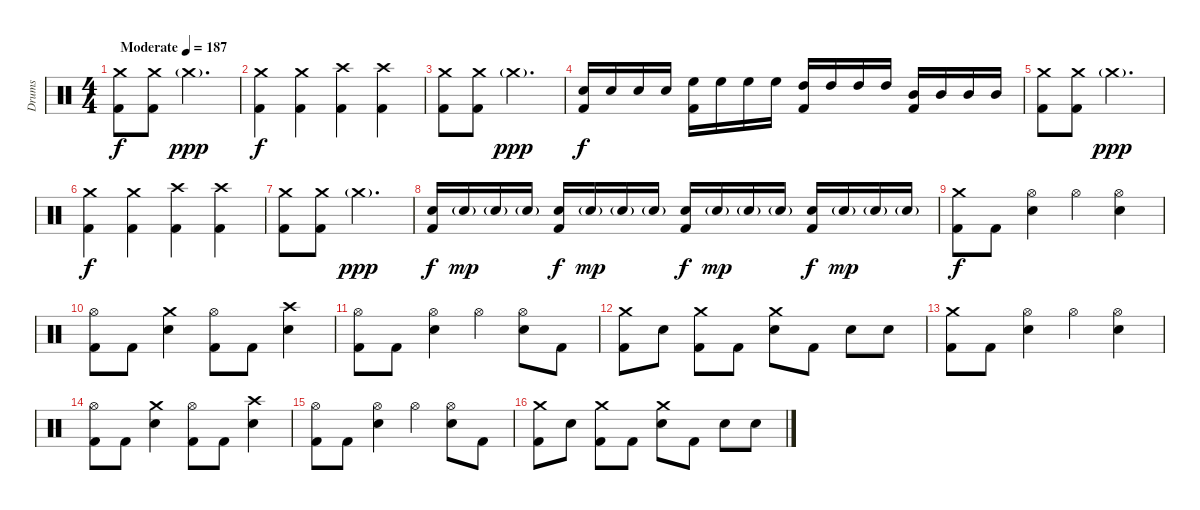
\track ("Drums" "Drums") {instrument percussion}
\staff
\articulation defaults
\ts (4 4)
\tempo (187 "Moderate")
\clef neutral
\ks c
("Crash medium (hit)" "Kick (hit) 2").8{dy f} ("Crash medium (hit)" "Kick (hit) 2").8 "Crash medium (hit)"{g}.2{d dy ppp} |
("Crash medium (hit)" "Kick (hit) 2").4{dy f} ("Crash medium (hit)" "Kick (hit) 2").4 ("Crash high (hit)" "Kick (hit) 2").4 ("Crash high (hit)" "Kick (hit) 2").4 |
("Crash medium (hit)" "Kick (hit) 2").8 ("Crash medium (hit)" "Kick (hit) 2").8 "Crash medium (hit)"{g}.2{d dy ppp} |
("Electric Snare (hit)" "Kick (hit) 2").16{dy f} "Electric Snare (hit)".16 "Electric Snare (hit)".16 "Electric Snare (hit)".16 ("High Floor Tom (hit)" "Kick (hit) 2").16 "High Floor Tom (hit)".16 "High Floor Tom (hit)".16 "High Floor Tom (hit)".16 ("High Tom (hit)" "Kick (hit) 2").16 "High Tom (hit)".16 "High Tom (hit)".16 "High Tom (hit)".16 ("Mid Tom (hit)" "Kick (hit) 2").16 "Mid Tom (hit)".16 "Mid Tom (hit)".16 "Mid Tom (hit)".16 |
("Crash medium (hit)" "Kick (hit) 2").8 ("Crash medium (hit)" "Kick (hit) 2").8 "Crash medium (hit)"{g}.2{d dy ppp} |
("Crash medium (hit)" "Kick (hit) 2").4{dy f} ("Crash medium (hit)" "Kick (hit) 2").4 ("Crash high (hit)" "Kick (hit) 2").4 ("Crash high (hit)" "Kick (hit) 2").4 |
("Crash medium (hit)" "Kick (hit) 2").8 ("Crash medium (hit)" "Kick (hit) 2").8 "Crash medium (hit)"{g}.2{d dy ppp} |
("Electric Snare (hit)" "Kick (hit) 2").16{dy f} "Electric Snare (hit)"{g}.16{dy mp} "Electric Snare (hit)"{g}.16 "Electric Snare (hit)"{g}.16 ("Electric Snare (hit)" "Kick (hit) 2").16{dy f} "Electric Snare (hit)"{g}.16{dy mp} "Electric Snare (hit)"{g}.16 "Electric Snare (hit)"{g}.16 ("Electric Snare (hit)" "Kick (hit) 2").16{dy f} "Electric Snare (hit)"{g}.16{dy mp} "Electric Snare (hit)"{g}.16 "Electric Snare (hit)"{g}.16 ("Electric Snare (hit)" "Kick (hit) 2").16{dy f} "Electric Snare (hit)"{g}.16{dy mp} "Electric Snare (hit)"{g}.16 "Electric Snare (hit)"{g}.16 |
("Crash medium (hit)" "Kick (hit) 2").8{dy f} "Kick (hit) 2".8 ("Hi-Hat (open)" "Electric Snare (hit)").4 "Hi-Hat (open)".4 ("Hi-Hat (open)" "Electric Snare (hit)").4 |
("Hi-Hat (open)" "Kick (hit) 2").8 "Kick (hit) 2".8 ("Crash medium (hit)" "Electric Snare (hit)").4 ("Hi-Hat (open)" "Kick (hit) 2").8 "Kick (hit) 2".8 ("Crash high (hit)" "Electric Snare (hit)").4 |
("Hi-Hat (open)" "Kick (hit) 2").8 "Kick (hit) 2".8 ("Hi-Hat (open)" "Electric Snare (hit)").4 "Hi-Hat (open)".4 ("Hi-Hat (open)" "Electric Snare (hit)").8 "Kick (hit) 2".8 |
("Crash medium (hit)" "Kick (hit) 2").8 "Electric Snare (hit)".8 ("Crash medium (hit)" "Kick (hit) 2").8 "Kick (hit) 2".8 ("Crash medium (hit)" "Electric Snare (hit)").8 "Kick (hit) 2".8 "Electric Snare (hit)".8 "Electric Snare (hit)".8 |
("Crash medium (hit)" "Kick (hit) 2").8 "Kick (hit) 2".8 ("Hi-Hat (open)" "Electric Snare (hit)").4 "Hi-Hat (open)".4 ("Hi-Hat (open)" "Electric Snare (hit)").4 |
("Hi-Hat (open)" "Kick (hit) 2").8 "Kick (hit) 2".8 ("Crash medium (hit)" "Electric Snare (hit)").4 ("Hi-Hat (open)" "Kick (hit) 2").8 "Kick (hit) 2".8 ("Crash high (hit)" "Electric Snare (hit)").4 |
("Hi-Hat (open)" "Kick (hit) 2").8 "Kick (hit) 2".8 ("Hi-Hat (open)" "Electric Snare (hit)").4 "Hi-Hat (open)".4 ("Hi-Hat (open)" "Electric Snare (hit)").8 "Kick (hit) 2".8 |
("Crash medium (hit)" "Kick (hit) 2").8 "Electric Snare (hit)".8 ("Crash medium (hit)" "Kick (hit) 2").8 "Kick (hit) 2".8 ("Crash medium (hit)" "Electric Snare (hit)").8 "Kick (hit) 2".8 "Electric Snare (hit)".8 "Electric Snare (hit)".8
